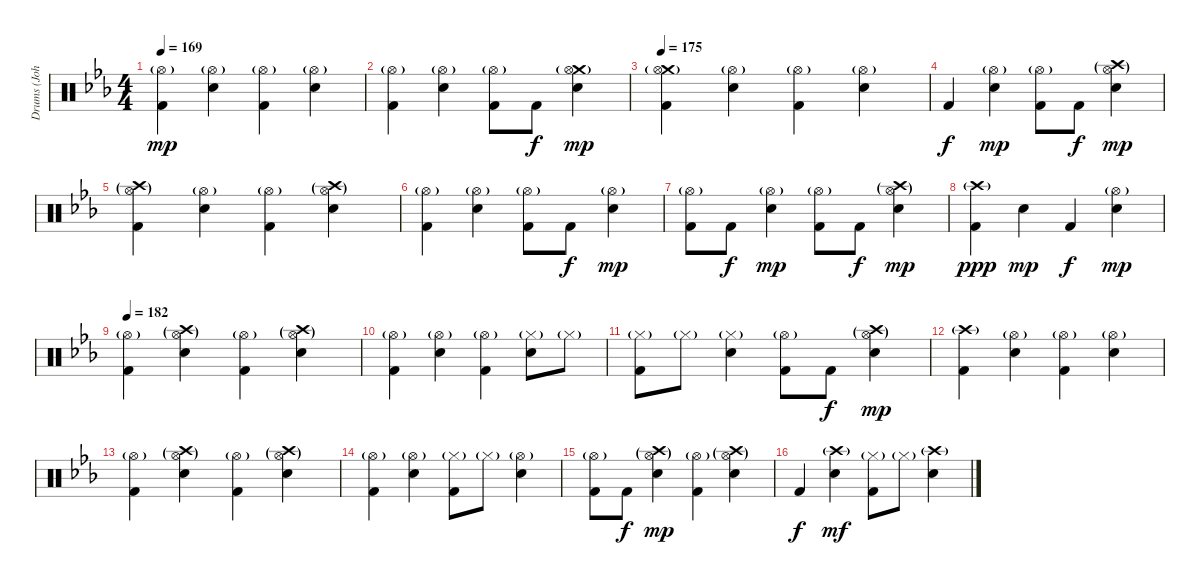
\track ("Drums (John O'Reilly)" "Drums (Joh") {instrument percussion}
\staff {score}
\articulation defaults
\ts (4 4)
\tempo 169
\clef neutral
\ks cminor
("Hi-Hat (open)"{g} "Kick (hit) 2").4{dy mp} ("Hi-Hat (open)"{g} "Electric Snare (hit)").4 ("Hi-Hat (open)"{g} "Kick (hit) 2").4 ("Hi-Hat (open)"{g} "Electric Snare (hit)").4 |
("Hi-Hat (open)"{g} "Kick (hit) 2").4 ("Hi-Hat (open)"{g} "Electric Snare (hit)").4 ("Hi-Hat (open)"{g} "Kick (hit) 2").8 "Kick (hit) 2".8{dy f} ("Crash medium (hit)"{g} "Hi-Hat (open)"{g} "Electric Snare (hit)").4{dy mp} |
\tempo 175
("Crash medium (hit)"{g} "Hi-Hat (open)"{g} "Kick (hit) 2").4 ("Hi-Hat (open)"{g} "Electric Snare (hit)").4 ("Hi-Hat (open)"{g} "Kick (hit) 2").4 ("Hi-Hat (open)"{g} "Electric Snare (hit)").4 |
"Kick (hit) 2".4{dy f} ("Hi-Hat (open)"{g} "Electric Snare (hit)").4{dy mp} ("Hi-Hat (open)"{g} "Kick (hit) 2").8 "Kick (hit) 2".8{dy f} ("Crash high (hit)"{g} "Hi-Hat (open)"{g} "Electric Snare (hit)").4{dy mp} |
("Crash high (hit)"{g} "Hi-Hat (open)"{g} "Kick (hit) 2").4 ("Hi-Hat (open)"{g} "Electric Snare (hit)").4 ("Hi-Hat (open)"{g} "Kick (hit) 2").4 ("Crash high (hit)"{g} "Hi-Hat (open)"{g} "Electric Snare (hit)").4 |
("Hi-Hat (open)"{g} "Kick (hit) 2").4 ("Hi-Hat (open)"{g} "Electric Snare (hit)").4 ("Hi-Hat (open)"{g} "Kick (hit) 2").8 "Kick (hit) 2".8{dy f} ("Hi-Hat (open)"{g} "Electric Snare (hit)").4{dy mp} |
("Hi-Hat (open)"{g} "Kick (hit) 2").8 "Kick (hit) 2".8{dy f} ("Hi-Hat (open)"{g} "Electric Snare (hit)").4{dy mp} ("Hi-Hat (open)"{g} "Kick (hit) 2").8 "Kick (hit) 2".8{dy f} ("Crash high (hit)"{g} "Hi-Hat (open)"{g} "Electric Snare (hit)").4{dy mp} |
("Crash high (hit)"{g} "Kick (hit) 2").4{dy ppp} "Electric Snare (hit)".4{dy mp} "Kick (hit) 2".4{dy f} ("Hi-Hat (open)"{g} "Electric Snare (hit)").4{dy mp} |
\tempo 182
("Hi-Hat (open)"{g} "Kick (hit) 2").4 ("Crash high (hit)"{g} "Hi-Hat (open)"{g} "Electric Snare (hit)").4 ("Hi-Hat (open)"{g} "Kick (hit) 2").4 ("Crash high (hit)"{g} "Hi-Hat (open)"{g} "Electric Snare (hit)").4 |
("Hi-Hat (open)"{g} "Kick (hit) 2").4 ("Hi-Hat (open)"{g} "Electric Snare (hit)").4 ("Hi-Hat (open)"{g} "Kick (hit) 2").4 ("Hi-Hat (closed)"{g} "Electric Snare (hit)").8 "Hi-Hat (closed)"{g}.8 |
("Hi-Hat (closed)"{g} "Kick (hit) 2").8 "Hi-Hat (closed)"{g}.8 ("Hi-Hat (closed)"{g} "Electric Snare (hit)").4 ("Hi-Hat (open)"{g} "Kick (hit) 2").8 "Kick (hit) 2".8{dy f} ("Crash high (hit)"{g} "Hi-Hat (open)"{g} "Electric Snare (hit)").4{dy mp} |
("Crash high (hit)"{g} "Kick (hit) 2").4 ("Hi-Hat (open)"{g} "Electric Snare (hit)").4 ("Hi-Hat (open)"{g} "Kick (hit) 2").4 ("Hi-Hat (open)"{g} "Electric Snare (hit)").4 |
("Hi-Hat (open)"{g} "Kick (hit) 2").4 ("Crash high (hit)"{g} "Hi-Hat (open)"{g} "Electric Snare (hit)").4 ("Hi-Hat (open)"{g} "Kick (hit) 2").4 ("Crash high (hit)"{g} "Hi-Hat (open)"{g} "Electric Snare (hit)").4 |
("Hi-Hat (open)"{g} "Kick (hit) 2").4 ("Hi-Hat (open)"{g} "Electric Snare (hit)").4 ("Hi-Hat (closed)"{g} "Kick (hit) 2").8 "Hi-Hat (closed)"{g}.8 ("Hi-Hat (open)"{g} "Electric Snare (hit)").4 |
("Hi-Hat (open)"{g} "Kick (hit) 2").8 "Kick (hit) 2".8{dy f} ("Crash high (hit)"{g} "Hi-Hat (open)"{g} "Electric Snare (hit)").4{dy mp} ("Hi-Hat (open)"{g} "Kick (hit) 2").4 ("Crash high (hit)"{g} "Hi-Hat (open)"{g} "Electric Snare (hit)").4 |
"Kick (hit) 2".4{dy f} ("Crash high (hit)"{g} "Electric Snare (hit)").4{dy mf} ("Hi-Hat (closed)"{g} "Kick (hit) 2").8 "Hi-Hat (closed)"{g}.8 ("Crash high (hit)"{g} "Electric Snare (hit)").4
